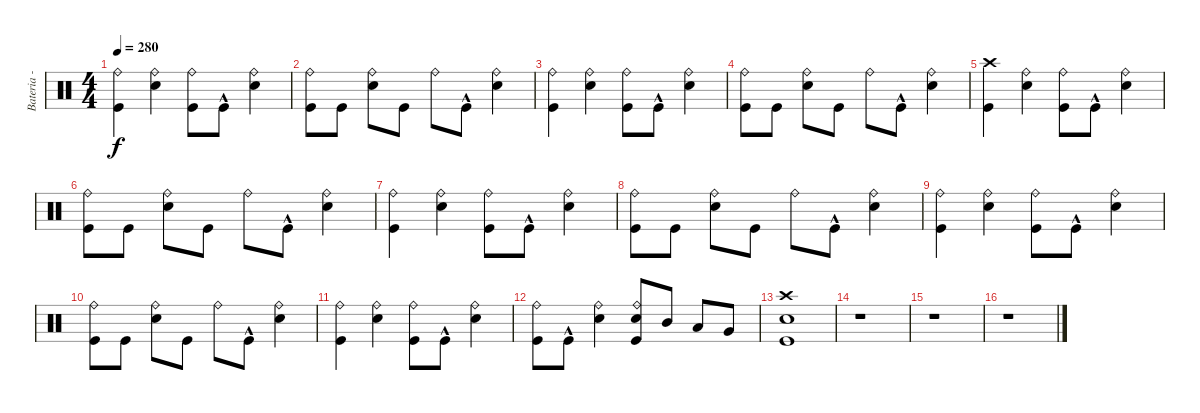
\track ("Bateria - Larzon" "Bateria - ") {instrument percussion}
\staff {score}
\articulation defaults
\ts (4 4)
\tempo 280
\clef neutral
\ks c
("Kick (hit)" "Ride (bell)").4{dy f} ("Snare (hit) 2" "Ride (bell)").4 ("Kick (hit)" "Ride (bell)").8 "Kick (hit)"{hac}.8 ("Snare (hit) 2" "Ride (bell)").4 |
("Kick (hit)" "Ride (bell)").8 "Kick (hit)".8 ("Snare (hit) 2" "Ride (bell)").8 "Kick (hit)".8 "Ride (bell)".8 "Kick (hit)"{hac}.8 ("Snare (hit) 2" "Ride (bell)").4 |
("Kick (hit)" "Ride (bell)").4 ("Snare (hit) 2" "Ride (bell)").4 ("Kick (hit)" "Ride (bell)").8 "Kick (hit)"{hac}.8 ("Snare (hit) 2" "Ride (bell)").4 |
("Kick (hit)" "Ride (bell)").8 "Kick (hit)".8 ("Snare (hit) 2" "Ride (bell)").8 "Kick (hit)".8 "Ride (bell)".8 "Kick (hit)"{hac}.8 ("Snare (hit) 2" "Ride (bell)").4 |
("Kick (hit)" "Crash high (hit)").4 ("Snare (hit) 2" "Ride (bell)").4 ("Kick (hit)" "Ride (bell)").8 "Kick (hit)"{hac}.8 ("Snare (hit) 2" "Ride (bell)").4 |
("Kick (hit)" "Ride (bell)").8 "Kick (hit)".8 ("Snare (hit) 2" "Ride (bell)").8 "Kick (hit)".8 "Ride (bell)".8 "Kick (hit)"{hac}.8 ("Snare (hit) 2" "Ride (bell)").4 |
("Kick (hit)" "Ride (bell)").4 ("Snare (hit) 2" "Ride (bell)").4 ("Kick (hit)" "Ride (bell)").8 "Kick (hit)"{hac}.8 ("Snare (hit) 2" "Ride (bell)").4 |
("Kick (hit)" "Ride (bell)").8 "Kick (hit)".8 ("Snare (hit) 2" "Ride (bell)").8 "Kick (hit)".8 "Ride (bell)".8 "Kick (hit)"{hac}.8 ("Snare (hit) 2" "Ride (bell)").4 |
("Kick (hit)" "Ride (bell)").4 ("Snare (hit) 2" "Ride (bell)").4 ("Kick (hit)" "Ride (bell)").8 "Kick (hit)"{hac}.8 ("Snare (hit) 2" "Ride (bell)").4 |
("Kick (hit)" "Ride (bell)").8 "Kick (hit)".8 ("Snare (hit) 2" "Ride (bell)").8 "Kick (hit)".8 "Ride (bell)".8 "Kick (hit)"{hac}.8 ("Snare (hit) 2" "Ride (bell)").4 |
("Kick (hit)" "Ride (bell)").4 ("Snare (hit) 2" "Ride (bell)").4 ("Kick (hit)" "Ride (bell)").8 "Kick (hit)"{hac}.8 ("Snare (hit) 2" "Ride (bell)").4 |
("Kick (hit)" "Ride (bell)").8 "Kick (hit)"{hac}.8 ("Snare (hit) 2" "Ride (bell)").4 ("Kick (hit)" "Snare (hit) 2" "Ride (bell)").8 "Mid Tom (hit)".8 "Low Tom (hit)".8 "Very Low Tom (hit)".8 |
("Kick (hit)" "Snare (hit) 2" "Crash high (hit)").1 |
r.1 |
r.1 |
r.1
